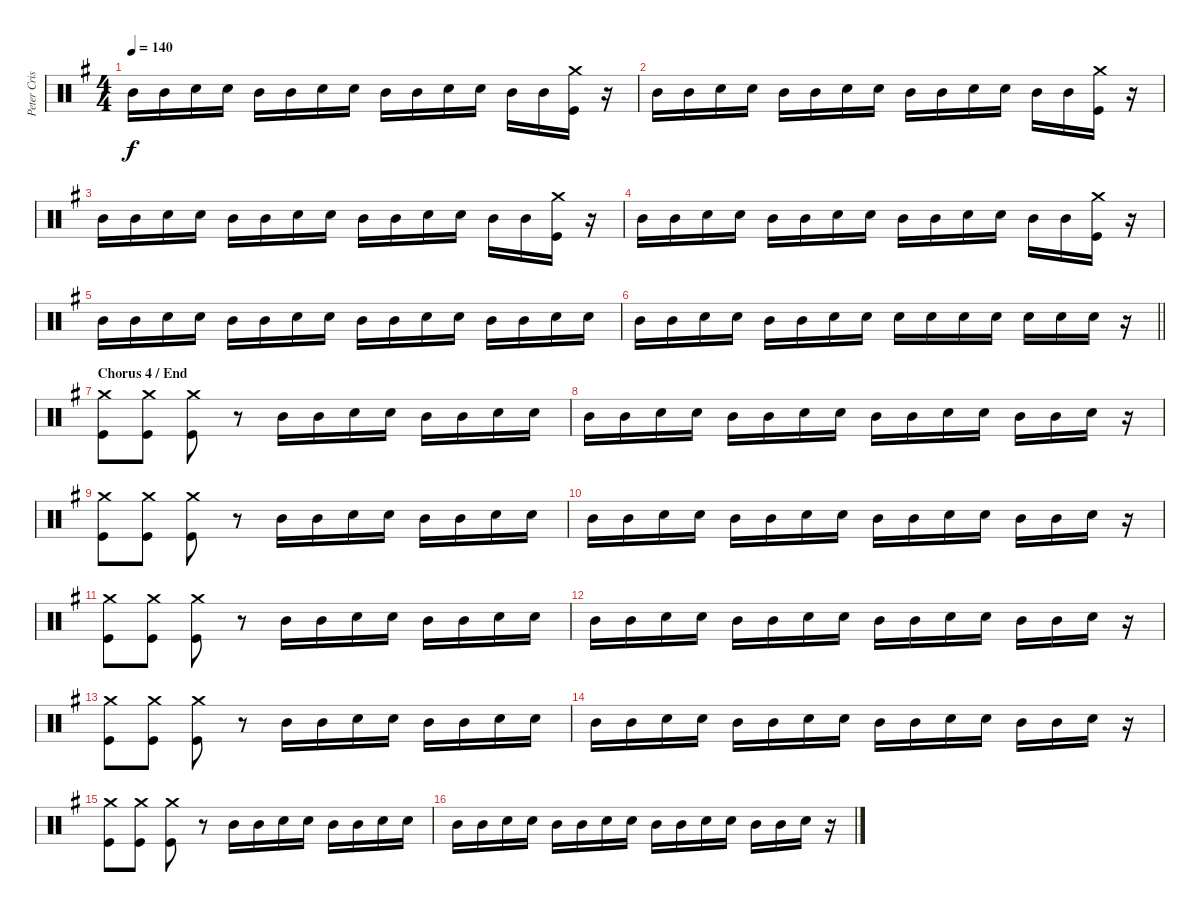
\track ("Peter Criss" "Peter Cris") {instrument percussion}
\staff {score}
\articulation defaults
\ts (4 4)
\tempo 140
\clef neutral
\ks g "Mid Tom (hit)".16{dy f} "Mid Tom (hit)".16 "Snare (hit) 2".16 "Snare (hit) 2".16 "Mid Tom (hit)".16 "Mid Tom (hit)".16 "Snare (hit) 2".16 "Snare (hit) 2".16 "Mid Tom (hit)".16 "Mid Tom (hit)".16 "Snare (hit) 2".16 "Snare (hit) 2".16 "Mid Tom (hit)".16 "Mid Tom (hit)".16
("Crash medium (hit)" "Kick (hit)").16 r.16 |
"Mid Tom (hit)".16 "Mid Tom (hit)".16 "Snare (hit) 2".16 "Snare (hit) 2".16 "Mid Tom (hit)".16 "Mid Tom (hit)".16 "Snare (hit) 2".16 "Snare (hit) 2".16 "Mid Tom (hit)".16 "Mid Tom (hit)".16 "Snare (hit) 2".16 "Snare (hit) 2".16 "Mid Tom (hit)".16 "Mid Tom (hit)".16 ("Crash medium (hit)" "Kick (hit)").16 r.16 |
"Mid Tom (hit)".16 "Mid Tom (hit)".16 "Snare (hit) 2".16 "Snare (hit) 2".16 "Mid Tom (hit)".16 "Mid Tom (hit)".16 "Snare (hit) 2".16 "Snare (hit) 2".16 "Mid Tom (hit)".16 "Mid Tom (hit)".16 "Snare (hit) 2".16 "Snare (hit) 2".16 "Mid Tom (hit)".16 "Mid Tom (hit)".16 ("Crash medium (hit)" "Kick (hit)").16 r.16 |
"Mid Tom (hit)".16 "Mid Tom (hit)".16 "Snare (hit) 2".16 "Snare (hit) 2".16 "Mid Tom (hit)".16 "Mid Tom (hit)".16 "Snare (hit) 2".16 "Snare (hit) 2".16 "Mid Tom (hit)".16 "Mid Tom (hit)".16 "Snare (hit) 2".16 "Snare (hit) 2".16 "Mid Tom (hit)".16 "Mid Tom (hit)".16 ("Crash medium (hit)" "Kick (hit)").16 r.16 |
"Mid Tom (hit)".16 "Mid Tom (hit)".16 "Snare (hit) 2".16 "Snare (hit) 2".16 "Mid Tom (hit)".16 "Mid Tom (hit)".16 "Snare (hit) 2".16 "Snare (hit) 2".16 "Mid Tom (hit)".16 "Mid Tom (hit)".16 "Snare (hit) 2".16 "Snare (hit) 2".16 "Mid Tom (hit)".16 "Mid Tom (hit)".16 "Snare (hit) 2".16 "Snare (hit) 2".16 |
\barLineRight lightlight "Mid Tom (hit)".16 "Mid Tom (hit)".16 "Snare (hit) 2".16 "Snare (hit) 2".16 "Mid Tom (hit)".16 "Mid Tom (hit)".16 "Snare (hit) 2".16 "Snare (hit) 2".16 "Snare (hit) 2".16 "Snare (hit) 2".16 "Snare (hit) 2".16 "Snare (hit) 2".16 "Snare (hit) 2".16 "Snare (hit) 2".16 "Snare (hit) 2".16
r.16 |
\section ("" "Chorus 4 / End")
("Crash medium (hit)" "Kick (hit)").8 ("Crash medium (hit)" "Kick (hit)").8 ("Crash medium (hit)" "Kick (hit)").8 r.8 "Mid Tom (hit)".16 "Mid Tom (hit)".16 "Snare (hit) 2".16 "Snare (hit) 2".16 "Mid Tom (hit)".16 "Mid Tom (hit)".16 "Snare (hit) 2".16 "Snare (hit) 2".16 |
"Mid Tom (hit)".16 "Mid Tom (hit)".16 "Snare (hit) 2".16 "Snare (hit) 2".16 "Mid Tom (hit)".16 "Mid Tom (hit)".16 "Snare (hit) 2".16 "Snare (hit) 2".16 "Mid Tom (hit)".16 "Mid Tom (hit)".16 "Snare (hit) 2".16 "Snare (hit) 2".16 "Mid Tom (hit)".16 "Mid Tom (hit)".16 "Snare (hit) 2".16 r.16 |
("Crash medium (hit)" "Kick (hit)").8 ("Crash medium (hit)" "Kick (hit)").8 ("Crash medium (hit)" "Kick (hit)").8 r.8 "Mid Tom (hit)".16 "Mid Tom (hit)".16 "Snare (hit) 2".16 "Snare (hit) 2".16 "Mid Tom (hit)".16 "Mid Tom (hit)".16 "Snare (hit) 2".16 "Snare (hit) 2".16 |
"Mid Tom (hit)".16 "Mid Tom (hit)".16 "Snare (hit) 2".16 "Snare (hit) 2".16 "Mid Tom (hit)".16 "Mid Tom (hit)".16 "Snare (hit) 2".16 "Snare (hit) 2".16 "Mid Tom (hit)".16 "Mid Tom (hit)".16 "Snare (hit) 2".16 "Snare (hit) 2".16 "Mid Tom (hit)".16 "Mid Tom (hit)".16 "Snare (hit) 2".16 r.16 |
("Crash medium (hit)" "Kick (hit)").8 ("Crash medium (hit)" "Kick (hit)").8 ("Crash medium (hit)" "Kick (hit)").8 r.8 "Mid Tom (hit)".16 "Mid Tom (hit)".16 "Snare (hit) 2".16 "Snare (hit) 2".16 "Mid Tom (hit)".16 "Mid Tom (hit)".16 "Snare (hit) 2".16 "Snare (hit) 2".16 |
"Mid Tom (hit)".16 "Mid Tom (hit)".16 "Snare (hit) 2".16 "Snare (hit) 2".16 "Mid Tom (hit)".16 "Mid Tom (hit)".16 "Snare (hit) 2".16 "Snare (hit) 2".16 "Mid Tom (hit)".16 "Mid Tom (hit)".16 "Snare (hit) 2".16 "Snare (hit) 2".16 "Mid Tom (hit)".16 "Mid Tom (hit)".16 "Snare (hit) 2".16 r.16 |
("Crash medium (hit)" "Kick (hit)").8 ("Crash medium (hit)" "Kick (hit)").8 ("Crash medium (hit)" "Kick (hit)").8 r.8 "Mid Tom (hit)".16 "Mid Tom (hit)".16 "Snare (hit) 2".16 "Snare (hit) 2".16 "Mid Tom (hit)".16 "Mid Tom (hit)".16 "Snare (hit) 2".16 "Snare (hit) 2".16 |
"Mid Tom (hit)".16 "Mid Tom (hit)".16 "Snare (hit) 2".16 "Snare (hit) 2".16 "Mid Tom (hit)".16 "Mid Tom (hit)".16 "Snare (hit) 2".16 "Snare (hit) 2".16 "Mid Tom (hit)".16 "Mid Tom (hit)".16 "Snare (hit) 2".16 "Snare (hit) 2".16 "Mid Tom (hit)".16 "Mid Tom (hit)".16 "Snare (hit) 2".16 r.16 |
("Crash medium (hit)" "Kick (hit)").8 ("Crash medium (hit)" "Kick (hit)").8 ("Crash medium (hit)" "Kick (hit)").8 r.8 "Mid Tom (hit)".16 "Mid Tom (hit)".16 "Snare (hit) 2".16 "Snare (hit) 2".16 "Mid Tom (hit)".16 "Mid Tom (hit)".16 "Snare (hit) 2".16 "Snare (hit) 2".16 |
"Mid Tom (hit)".16 "Mid Tom (hit)".16 "Snare (hit) 2".16 "Snare (hit) 2".16 "Mid Tom (hit)".16 "Mid Tom (hit)".16 "Snare (hit) 2".16 "Snare (hit) 2".16 "Mid Tom (hit)".16 "Mid Tom (hit)".16 "Snare (hit) 2".16 "Snare (hit) 2".16 "Mid Tom (hit)".16 "Mid Tom (hit)".16 "Snare (hit) 2".16 r.16
